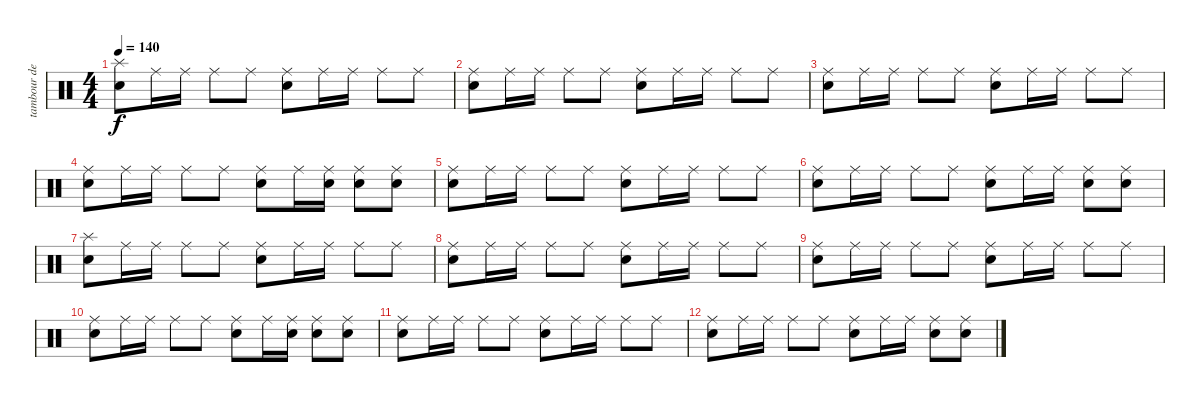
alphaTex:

\track ("tambour de guerre" "tambour de") {instrument percussion}
\staff {score}
\articulation defaults
\ts (4 4)
\tempo 140
\clef neutral
\ks c
("Snare (hit) 2" "Splash (hit)").8{dy f} "Ride (middle)".16 "Ride (middle)".16 "Ride (middle)".8 "Ride (middle)".8 ("Snare (hit) 2" "Ride (middle)").8 "Ride (middle)".16 "Ride (middle)".16 "Ride (middle)".8 "Ride (middle)".8 |
("Snare (hit) 2" "Ride (middle)").8 "Ride (middle)".16 "Ride (middle)".16 "Ride (middle)".8 "Ride (middle)".8 ("Snare (hit) 2" "Ride (middle)").8 "Ride (middle)".16 "Ride (middle)".16 "Ride (middle)".8 "Ride (middle)".8 |
("Snare (hit) 2" "Ride (middle)").8 "Ride (middle)".16 "Ride (middle)".16 "Ride (middle)".8 "Ride (middle)".8 ("Snare (hit) 2" "Ride (middle)").8 "Ride (middle)".16 "Ride (middle)".16 "Ride (middle)".8 "Ride (middle)".8 |
("Snare (hit) 2" "Ride (middle)").8 "Ride (middle)".16 "Ride (middle)".16 "Ride (middle)".8 "Ride (middle)".8 ("Snare (hit) 2" "Ride (middle)").8 "Ride (middle)".16 ("Snare (hit) 2" "Ride (middle)").16 ("Snare (hit) 2" "Ride (middle)").8 ("Snare (hit) 2" "Ride (middle)").8 |
("Snare (hit) 2" "Ride (middle)").8 "Ride (middle)".16 "Ride (middle)".16 "Ride (middle)".8 "Ride (middle)".8 ("Snare (hit) 2" "Ride (middle)").8 "Ride (middle)".16 "Ride (middle)".16 "Ride (middle)".8 "Ride (middle)".8 |
("Snare (hit) 2" "Ride (middle)").8 "Ride (middle)".16 "Ride (middle)".16 "Ride (middle)".8 "Ride (middle)".8 ("Snare (hit) 2" "Ride (middle)").8 "Ride (middle)".16 "Ride (middle)".16 ("Snare (hit) 2" "Ride (middle)").8 ("Snare (hit) 2" "Ride (middle)").8 |
("Snare (hit) 2" "Splash (hit)").8 "Ride (middle)".16 "Ride (middle)".16 "Ride (middle)".8 "Ride (middle)".8 ("Snare (hit) 2" "Ride (middle)").8 "Ride (middle)".16 "Ride (middle)".16 "Ride (middle)".8 "Ride (middle)".8 |
("Snare (hit) 2" "Ride (middle)").8 "Ride (middle)".16 "Ride (middle)".16 "Ride (middle)".8 "Ride (middle)".8 ("Snare (hit) 2" "Ride (middle)").8 "Ride (middle)".16 "Ride (middle)".16 "Ride (middle)".8 "Ride (middle)".8 |
("Snare (hit) 2" "Ride (middle)").8 "Ride (middle)".16 "Ride (middle)".16 "Ride (middle)".8 "Ride (middle)".8 ("Snare (hit) 2" "Ride (middle)").8 "Ride (middle)".16 "Ride (middle)".16 "Ride (middle)".8 "Ride (middle)".8 |
("Snare (hit) 2" "Ride (middle)").8 "Ride (middle)".16 "Ride (middle)".16 "Ride (middle)".8 "Ride (middle)".8 ("Snare (hit) 2" "Ride (middle)").8 "Ride (middle)".16 ("Snare (hit) 2" "Ride (middle)").16 ("Snare (hit) 2" "Ride (middle)").8 ("Snare (hit) 2" "Ride (middle)").8 |
("Snare (hit) 2" "Ride (middle)").8 "Ride (middle)".16 "Ride (middle)".16 "Ride (middle)".8 "Ride (middle)".8 ("Snare (hit) 2" "Ride (middle)").8 "Ride (middle)".16 "Ride (middle)".16 "Ride (middle)".8 "Ride (middle)".8 |
("Snare (hit) 2" "Ride (middle)").8 "Ride (middle)".16 "Ride (middle)".16 "Ride (middle)".8 "Ride (middle)".8 ("Snare (hit) 2" "Ride (middle)").8 "Ride (middle)".16 "Ride (middle)".16 ("Snare (hit) 2" "Ride (middle)").8 ("Snare (hit) 2" "Ride (middle)").8
